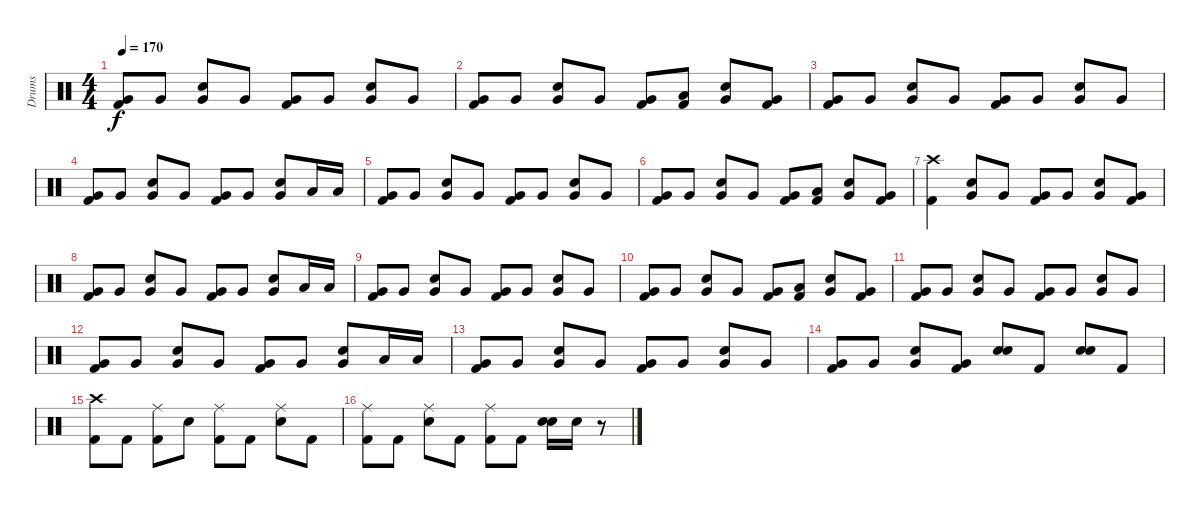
\track ("Drums" "Drums") {instrument percussion}
\staff {score}
\articulation defaults
\ts (4 4)
\tempo 170
\clef neutral
\ks c
("Very Low Tom (hit)" "Kick (hit) 2").8{dy f} "Very Low Tom (hit)".8 ("Very Low Tom (hit)" "Snare (hit) 2").8 "Very Low Tom (hit)".8 ("Very Low Tom (hit)" "Kick (hit) 2").8 "Very Low Tom (hit)".8 ("Very Low Tom (hit)" "Snare (hit) 2").8 "Very Low Tom (hit)".8 |
("Very Low Tom (hit)" "Kick (hit) 2").8 "Very Low Tom (hit)".8 ("Very Low Tom (hit)" "Snare (hit) 2").8 "Very Low Tom (hit)".8 ("Very Low Tom (hit)" "Kick (hit) 2").8 ("Low Tom (hit)" "Kick (hit) 2").8 ("Very Low Tom (hit)" "Snare (hit) 2").8 ("Very Low Tom (hit)" "Kick (hit) 2").8 |
("Very Low Tom (hit)" "Kick (hit) 2").8 "Very Low Tom (hit)".8 ("Very Low Tom (hit)" "Snare (hit) 2").8 "Very Low Tom (hit)".8 ("Very Low Tom (hit)" "Kick (hit) 2").8 "Very Low Tom (hit)".8 ("Very Low Tom (hit)" "Snare (hit) 2").8 "Very Low Tom (hit)".8 |
("Very Low Tom (hit)" "Kick (hit) 2").8 "Very Low Tom (hit)".8 ("Very Low Tom (hit)" "Snare (hit) 2").8 "Very Low Tom (hit)".8 ("Very Low Tom (hit)" "Kick (hit) 2").8 "Very Low Tom (hit)".8 ("Very Low Tom (hit)" "Snare (hit) 2").8 "Low Tom (hit)".16 "Low Tom (hit)".16 |
("Very Low Tom (hit)" "Kick (hit) 2").8 "Very Low Tom (hit)".8 ("Very Low Tom (hit)" "Snare (hit) 2").8 "Very Low Tom (hit)".8 ("Very Low Tom (hit)" "Kick (hit) 2").8 "Very Low Tom (hit)".8 ("Very Low Tom (hit)" "Snare (hit) 2").8 "Very Low Tom (hit)".8 |
("Very Low Tom (hit)" "Kick (hit) 2").8 "Very Low Tom (hit)".8 ("Very Low Tom (hit)" "Snare (hit) 2").8 "Very Low Tom (hit)".8 ("Very Low Tom (hit)" "Kick (hit) 2").8 ("Low Tom (hit)" "Kick (hit) 2").8 ("Very Low Tom (hit)" "Snare (hit) 2").8 ("Very Low Tom (hit)" "Kick (hit) 2").8 |
("Crash high (hit)" "Kick (hit) 2").4 ("Very Low Tom (hit)" "Snare (hit) 2").8 "Very Low Tom (hit)".8 ("Very Low Tom (hit)" "Kick (hit) 2").8 "Very Low Tom (hit)".8 ("Very Low Tom (hit)" "Snare (hit) 2").8 ("Very Low Tom (hit)" "Kick (hit) 2").8 |
("Very Low Tom (hit)" "Kick (hit) 2").8 "Very Low Tom (hit)".8 ("Very Low Tom (hit)" "Snare (hit) 2").8 "Very Low Tom (hit)".8 ("Very Low Tom (hit)" "Kick (hit) 2").8 "Very Low Tom (hit)".8 ("Very Low Tom (hit)" "Snare (hit) 2").8 "Low Tom (hit)".16 "Low Tom (hit)".16 |
("Very Low Tom (hit)" "Kick (hit) 2").8 "Very Low Tom (hit)".8 ("Very Low Tom (hit)" "Snare (hit) 2").8 "Very Low Tom (hit)".8 ("Very Low Tom (hit)" "Kick (hit) 2").8 "Very Low Tom (hit)".8 ("Very Low Tom (hit)" "Snare (hit) 2").8 "Very Low Tom (hit)".8 |
("Very Low Tom (hit)" "Kick (hit) 2").8 "Very Low Tom (hit)".8 ("Very Low Tom (hit)" "Snare (hit) 2").8 "Very Low Tom (hit)".8 ("Very Low Tom (hit)" "Kick (hit) 2").8 ("Low Tom (hit)" "Kick (hit) 2").8 ("Very Low Tom (hit)" "Snare (hit) 2").8 ("Very Low Tom (hit)" "Kick (hit) 2").8 |
("Very Low Tom (hit)" "Kick (hit) 2").8 "Very Low Tom (hit)".8 ("Very Low Tom (hit)" "Snare (hit) 2").8 "Very Low Tom (hit)".8 ("Very Low Tom (hit)" "Kick (hit) 2").8 "Very Low Tom (hit)".8 ("Very Low Tom (hit)" "Snare (hit) 2").8 "Very Low Tom (hit)".8 |
("Very Low Tom (hit)" "Kick (hit) 2").8 "Very Low Tom (hit)".8 ("Very Low Tom (hit)" "Snare (hit) 2").8 "Very Low Tom (hit)".8 ("Very Low Tom (hit)" "Kick (hit) 2").8 "Very Low Tom (hit)".8 ("Very Low Tom (hit)" "Snare (hit) 2").8 "Low Tom (hit)".16 "Low Tom (hit)".16 |
("Very Low Tom (hit)" "Kick (hit) 2").8 "Very Low Tom (hit)".8 ("Very Low Tom (hit)" "Snare (hit) 2").8 "Very Low Tom (hit)".8 ("Very Low Tom (hit)" "Kick (hit) 2").8 "Very Low Tom (hit)".8 ("Very Low Tom (hit)" "Snare (hit) 2").8 "Very Low Tom (hit)".8 |
("Very Low Tom (hit)" "Kick (hit) 2").8 "Very Low Tom (hit)".8 ("Very Low Tom (hit)" "Snare (hit) 2").8 ("Very Low Tom (hit)" "Kick (hit) 2").8 ("Snare (hit) 2" "Snare (hit) 2").8 "Kick (hit) 2".8 ("Snare (hit) 2" "Snare (hit) 2").8 "Kick (hit) 2".8 |
("Crash high (hit)" "Kick (hit) 2").8 "Kick (hit) 2".8 ("Ride (middle)" "Kick (hit) 2").8 "Snare (hit) 2".8 ("Ride (middle)" "Kick (hit) 2").8 "Kick (hit) 2".8 ("Ride (middle)" "Snare (hit) 2").8 "Kick (hit) 2".8 |
("Ride (middle)" "Kick (hit) 2").8 "Kick (hit) 2".8 ("Ride (middle)" "Snare (hit) 2").8 "Kick (hit) 2".8 ("Ride (middle)" "Kick (hit) 2").8 "Kick (hit) 2".8 ("Snare (hit) 2" "Snare (hit) 2").16 "Snare (hit) 2".16 r.8
